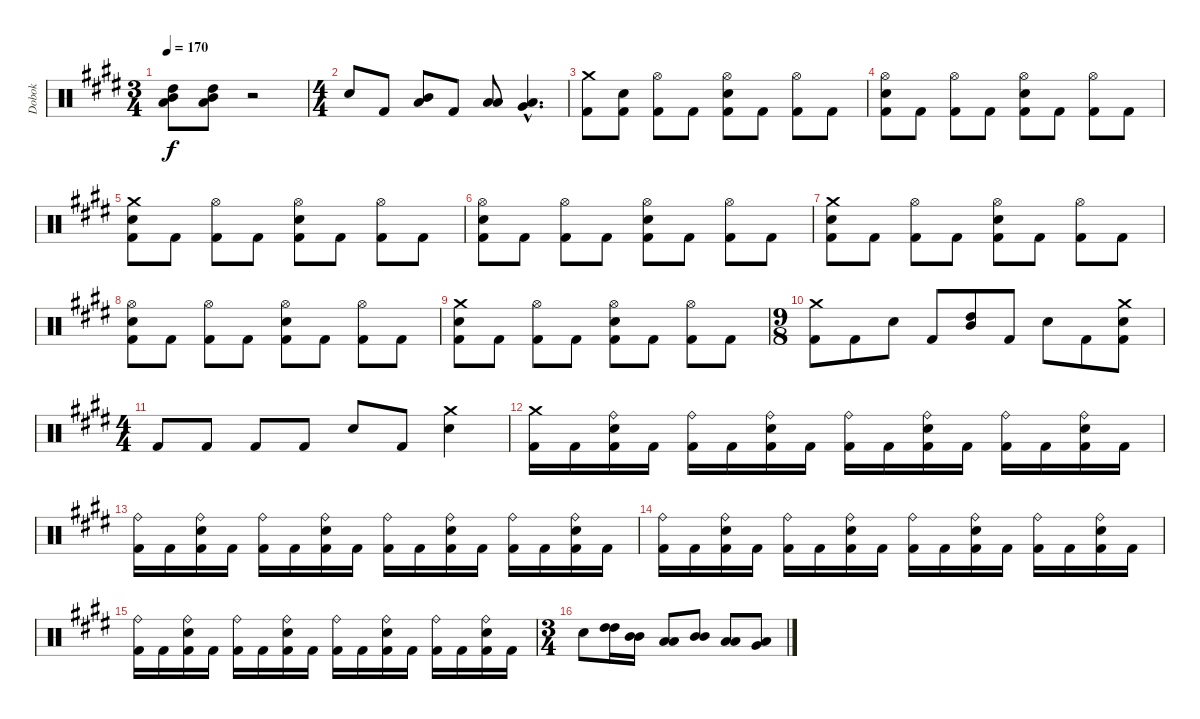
\track ("Dobok" "Dobok") {instrument percussion}
\staff {score}
\articulation defaults
\ts (3 4)
\tempo 170
\clef neutral
\ks c#minor
("High Tom (hit)" "Low Tom (hit)" "Mid Tom (hit)").8{dy f} ("High Tom (hit)" "Low Tom (hit)" "Mid Tom (hit)").8 r.2 |
\ts (4 4)
"Snare (hit) 2".8 "Kick (hit) 2".8 ("Low Tom (hit)" "Mid Tom (hit)").8 "Kick (hit) 2".8 ("Low Tom (hit)" "Low Tom (hit)").8 ("Low Floor Tom (hit)"{hac} "Very Low Tom (hit)"{hac}).4{d} |
("Crash medium (hit)" "Kick (hit) 2").8 ("Snare (hit) 2" "Kick (hit) 2").8 ("Hi-Hat (open)" "Kick (hit) 2").8 "Kick (hit) 2".8 ("Hi-Hat (open)" "Snare (hit) 2" "Kick (hit) 2").8 "Kick (hit) 2".8 ("Hi-Hat (open)" "Kick (hit) 2").8 "Kick (hit) 2".8 |
("Hi-Hat (open)" "Snare (hit) 2" "Kick (hit) 2").8 "Kick (hit) 2".8 ("Hi-Hat (open)" "Kick (hit) 2").8 "Kick (hit) 2".8 ("Hi-Hat (open)" "Snare (hit) 2" "Kick (hit) 2").8 "Kick (hit) 2".8 ("Hi-Hat (open)" "Kick (hit) 2").8 "Kick (hit) 2".8 |
("Crash medium (hit)" "Snare (hit) 2" "Kick (hit) 2").8 "Kick (hit) 2".8 ("Hi-Hat (open)" "Kick (hit) 2").8 "Kick (hit) 2".8 ("Hi-Hat (open)" "Snare (hit) 2" "Kick (hit) 2").8 "Kick (hit) 2".8 ("Hi-Hat (open)" "Kick (hit) 2").8 "Kick (hit) 2".8 |
("Hi-Hat (open)" "Snare (hit) 2" "Kick (hit) 2").8 "Kick (hit) 2".8 ("Hi-Hat (open)" "Kick (hit) 2").8 "Kick (hit) 2".8 ("Hi-Hat (open)" "Snare (hit) 2" "Kick (hit) 2").8 "Kick (hit) 2".8 ("Hi-Hat (open)" "Kick (hit) 2").8 "Kick (hit) 2".8 |
("Crash medium (hit)" "Snare (hit) 2" "Kick (hit) 2").8 "Kick (hit) 2".8 ("Hi-Hat (open)" "Kick (hit) 2").8 "Kick (hit) 2".8 ("Hi-Hat (open)" "Snare (hit) 2" "Kick (hit) 2").8 "Kick (hit) 2".8 ("Hi-Hat (open)" "Kick (hit) 2").8 "Kick (hit) 2".8 |
("Hi-Hat (open)" "Snare (hit) 2" "Kick (hit) 2").8 "Kick (hit) 2".8 ("Hi-Hat (open)" "Kick (hit) 2").8 "Kick (hit) 2".8 ("Hi-Hat (open)" "Snare (hit) 2" "Kick (hit) 2").8 "Kick (hit) 2".8 ("Hi-Hat (open)" "Kick (hit) 2").8 "Kick (hit) 2".8 |
("Crash medium (hit)" "Snare (hit) 2" "Kick (hit) 2").8 "Kick (hit) 2".8 ("Hi-Hat (open)" "Kick (hit) 2").8 "Kick (hit) 2".8 ("Hi-Hat (open)" "Snare (hit) 2" "Kick (hit) 2").8 "Kick (hit) 2".8 ("Hi-Hat (open)" "Kick (hit) 2").8 "Kick (hit) 2".8 |
\ts (9 8)
("Crash medium (hit)" "Kick (hit) 2").8 "Kick (hit) 2".8 "Snare (hit) 2".8 "Kick (hit) 2".8 ("High Tom (hit)" "Mid Tom (hit)").8 "Kick (hit) 2".8 "Snare (hit) 2".8 "Kick (hit) 2".8 ("Crash medium (hit)" "Snare (hit) 2" "Kick (hit) 2").8 |
\ts (4 4)
"Kick (hit) 2".8 "Kick (hit) 2".8 "Kick (hit) 2".8 "Kick (hit) 2".8 "Snare (hit) 2".8 "Kick (hit) 2".8 ("Crash medium (hit)" "Snare (hit) 2").4 |
("Crash medium (hit)" "Kick (hit) 2").16 "Kick (hit) 2".16 ("Ride (bell)" "Snare (hit) 2" "Kick (hit) 2").16 "Kick (hit) 2".16 ("Ride (bell)" "Kick (hit) 2").16 "Kick (hit) 2".16 ("Ride (bell)" "Snare (hit) 2" "Kick (hit) 2").16 "Kick (hit) 2".16 ("Ride (bell)" "Kick (hit) 2").16 "Kick (hit) 2".16 ("Ride (bell)" "Snare (hit) 2" "Kick (hit) 2").16 "Kick (hit) 2".16 ("Ride (bell)" "Kick (hit) 2").16 "Kick (hit) 2".16 ("Ride (bell)" "Snare (hit) 2" "Kick (hit) 2").16 "Kick (hit) 2".16 |
("Ride (bell)" "Kick (hit) 2").16 "Kick (hit) 2".16 ("Ride (bell)" "Snare (hit) 2" "Kick (hit) 2").16 "Kick (hit) 2".16 ("Ride (bell)" "Kick (hit) 2").16 "Kick (hit) 2".16 ("Ride (bell)" "Snare (hit) 2" "Kick (hit) 2").16 "Kick (hit) 2".16 ("Ride (bell)" "Kick (hit) 2").16 "Kick (hit) 2".16 ("Ride (bell)" "Snare (hit) 2" "Kick (hit) 2").16 "Kick (hit) 2".16 ("Ride (bell)" "Kick (hit) 2").16 "Kick (hit) 2".16 ("Ride (bell)" "Snare (hit) 2" "Kick (hit) 2").16 "Kick (hit) 2".16 |
("Ride (bell)" "Kick (hit) 2").16 "Kick (hit) 2".16 ("Ride (bell)" "Snare (hit) 2" "Kick (hit) 2").16 "Kick (hit) 2".16 ("Ride (bell)" "Kick (hit) 2").16 "Kick (hit) 2".16 ("Ride (bell)" "Snare (hit) 2" "Kick (hit) 2").16 "Kick (hit) 2".16 ("Ride (bell)" "Kick (hit) 2").16 "Kick (hit) 2".16 ("Ride (bell)" "Snare (hit) 2" "Kick (hit) 2").16 "Kick (hit) 2".16 ("Ride (bell)" "Kick (hit) 2").16 "Kick (hit) 2".16 ("Ride (bell)" "Snare (hit) 2" "Kick (hit) 2").16 "Kick (hit) 2".16 |
("Ride (bell)" "Kick (hit) 2").16 "Kick (hit) 2".16 ("Ride (bell)" "Snare (hit) 2" "Kick (hit) 2").16 "Kick (hit) 2".16 ("Ride (bell)" "Kick (hit) 2").16 "Kick (hit) 2".16 ("Ride (bell)" "Snare (hit) 2" "Kick (hit) 2").16 "Kick (hit) 2".16 ("Ride (bell)" "Kick (hit) 2").16 "Kick (hit) 2".16 ("Ride (bell)" "Snare (hit) 2" "Kick (hit) 2").16 "Kick (hit) 2".16 ("Ride (bell)" "Kick (hit) 2").16 "Kick (hit) 2".16 ("Ride (bell)" "Snare (hit) 2" "Kick (hit) 2").16 "Kick (hit) 2".16 |
\ts (3 4)
"Snare (hit) 2".8 ("High Tom (hit)" "High Tom (hit)").16 ("Mid Tom (hit)" "Mid Tom (hit)").16 ("Low Tom (hit)" "Low Tom (hit)").8 ("Mid Tom (hit)" "Mid Tom (hit)").8 ("Low Tom (hit)" "Low Tom (hit)").8 ("Low Floor Tom (hit)" "Very Low Tom (hit)").8
